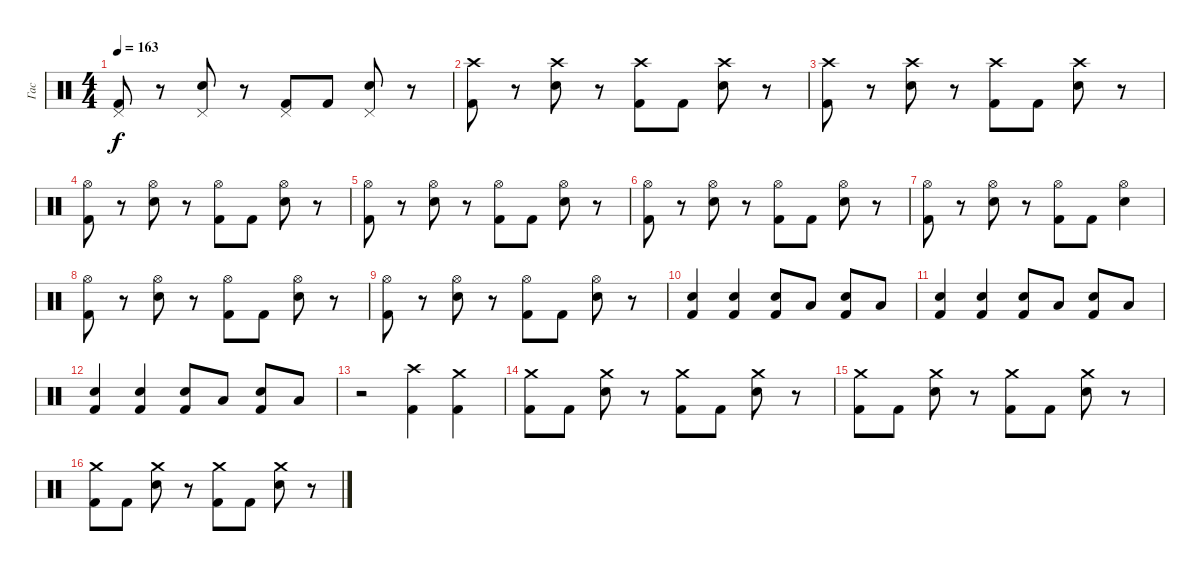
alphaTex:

\track ("Гас" "Гас") {instrument percussion}
\staff {score}
\articulation defaults
\ts (4 4)
\tempo 163
\clef neutral
\ks c
("Pedal Hi-Hat (hit)" "Kick (hit) 2").8{dy f} r.8 ("Pedal Hi-Hat (hit)" "Electric Snare (hit)").8 r.8 ("Pedal Hi-Hat (hit)" "Kick (hit) 2").8 "Kick (hit) 2".8 ("Pedal Hi-Hat (hit)" "Electric Snare (hit)").8 r.8 |
("Crash high (hit)" "Kick (hit) 2").8 r.8 ("Crash high (hit)" "Electric Snare (hit)").8 r.8 ("Crash high (hit)" "Kick (hit) 2").8 "Kick (hit) 2".8 ("Crash high (hit)" "Electric Snare (hit)").8 r.8 |
("Crash high (hit)" "Kick (hit) 2").8 r.8 ("Crash high (hit)" "Electric Snare (hit)").8 r.8 ("Crash high (hit)" "Kick (hit) 2").8 "Kick (hit) 2".8 ("Crash high (hit)" "Electric Snare (hit)").8 r.8 |
("Hi-Hat (open)" "Kick (hit) 2").8 r.8 ("Hi-Hat (open)" "Electric Snare (hit)").8 r.8 ("Hi-Hat (open)" "Kick (hit) 2").8 "Kick (hit) 2".8 ("Hi-Hat (open)" "Electric Snare (hit)").8 r.8 |
("Hi-Hat (open)" "Kick (hit) 2").8 r.8 ("Hi-Hat (open)" "Electric Snare (hit)").8 r.8 ("Hi-Hat (open)" "Kick (hit) 2").8 "Kick (hit) 2".8 ("Hi-Hat (open)" "Electric Snare (hit)").8 r.8 |
("Hi-Hat (open)" "Kick (hit) 2").8 r.8 ("Hi-Hat (open)" "Electric Snare (hit)").8 r.8 ("Hi-Hat (open)" "Kick (hit) 2").8 "Kick (hit) 2".8 ("Hi-Hat (open)" "Electric Snare (hit)").8 r.8 |
("Hi-Hat (open)" "Kick (hit) 2").8 r.8 ("Hi-Hat (open)" "Electric Snare (hit)").8 r.8 ("Hi-Hat (open)" "Kick (hit) 2").8 "Kick (hit) 2".8 ("Hi-Hat (open)" "Electric Snare (hit)").4 |
("Hi-Hat (open)" "Kick (hit) 2").8 r.8 ("Hi-Hat (open)" "Electric Snare (hit)").8 r.8 ("Hi-Hat (open)" "Kick (hit) 2").8 "Kick (hit) 2".8 ("Hi-Hat (open)" "Electric Snare (hit)").8 r.8 |
("Hi-Hat (open)" "Kick (hit) 2").8 r.8 ("Hi-Hat (open)" "Electric Snare (hit)").8 r.8 ("Hi-Hat (open)" "Kick (hit) 2").8 "Kick (hit) 2".8 ("Hi-Hat (open)" "Electric Snare (hit)").8 r.8 |
("Snare (hit) 2" "Kick (hit) 2").4 ("Snare (hit) 2" "Kick (hit) 2").4 ("Snare (hit) 2" "Kick (hit) 2").8 "Low Tom (hit)".8 ("Snare (hit) 2" "Kick (hit) 2").8 "Low Tom (hit)".8 |
("Snare (hit) 2" "Kick (hit) 2").4 ("Snare (hit) 2" "Kick (hit) 2").4 ("Snare (hit) 2" "Kick (hit) 2").8 "Low Tom (hit)".8 ("Snare (hit) 2" "Kick (hit) 2").8 "Low Tom (hit)".8 |
("Snare (hit) 2" "Kick (hit) 2").4 ("Snare (hit) 2" "Kick (hit) 2").4 ("Snare (hit) 2" "Kick (hit) 2").8 "Low Tom (hit)".8 ("Snare (hit) 2" "Kick (hit) 2").8 "Low Tom (hit)".8 |
r.2 ("Crash high (hit)" "Kick (hit) 2").4 ("Crash medium (hit)" "Kick (hit) 2").4 |
("Crash medium (hit)" "Kick (hit) 2").8 "Kick (hit) 2".8 ("Crash medium (hit)" "Electric Snare (hit)").8 r.8 ("Crash medium (hit)" "Kick (hit) 2").8 "Kick (hit) 2".8 ("Crash medium (hit)" "Electric Snare (hit)").8 r.8 |
("Crash medium (hit)" "Kick (hit) 2").8 "Kick (hit) 2".8 ("Crash medium (hit)" "Electric Snare (hit)").8 r.8 ("Crash medium (hit)" "Kick (hit) 2").8 "Kick (hit) 2".8 ("Crash medium (hit)" "Electric Snare (hit)").8 r.8 |
("Crash medium (hit)" "Kick (hit) 2").8 "Kick (hit) 2".8 ("Crash medium (hit)" "Electric Snare (hit)").8 r.8 ("Crash medium (hit)" "Kick (hit) 2").8 "Kick (hit) 2".8 ("Crash medium (hit)" "Electric Snare (hit)").8 r.8
